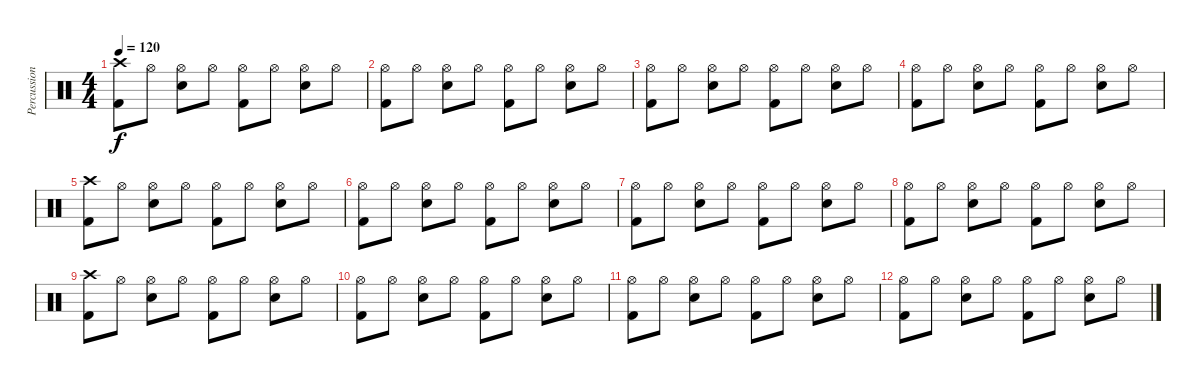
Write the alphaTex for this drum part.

\track ("Percussion" "Percussion") {instrument percussion}
\staff {score}
\articulation defaults
\ts (4 4)
\tempo 120
\clef neutral
\ks c
("Crash high (hit)" "Kick (hit) 2").8{dy f} "Hi-Hat (open)".8 ("Hi-Hat (open)" "Snare (hit) 2").8 "Hi-Hat (open)".8 ("Hi-Hat (open)" "Kick (hit) 2").8 "Hi-Hat (open)".8 ("Hi-Hat (open)" "Snare (hit) 2").8 "Hi-Hat (open)".8 |
("Hi-Hat (open)" "Kick (hit) 2").8 "Hi-Hat (open)".8 ("Hi-Hat (open)" "Snare (hit) 2").8 "Hi-Hat (open)".8 ("Hi-Hat (open)" "Kick (hit) 2").8 "Hi-Hat (open)".8 ("Hi-Hat (open)" "Snare (hit) 2").8 "Hi-Hat (open)".8 |
("Hi-Hat (open)" "Kick (hit) 2").8 "Hi-Hat (open)".8 ("Hi-Hat (open)" "Snare (hit) 2").8 "Hi-Hat (open)".8 ("Hi-Hat (open)" "Kick (hit) 2").8 "Hi-Hat (open)".8 ("Hi-Hat (open)" "Snare (hit) 2").8 "Hi-Hat (open)".8 |
("Hi-Hat (open)" "Kick (hit) 2").8 "Hi-Hat (open)".8 ("Hi-Hat (open)" "Snare (hit) 2").8 "Hi-Hat (open)".8 ("Hi-Hat (open)" "Kick (hit) 2").8 "Hi-Hat (open)".8 ("Hi-Hat (open)" "Snare (hit) 2").8 "Hi-Hat (open)".8 |
("Crash high (hit)" "Kick (hit) 2").8 "Hi-Hat (open)".8 ("Hi-Hat (open)" "Snare (hit) 2").8 "Hi-Hat (open)".8 ("Hi-Hat (open)" "Kick (hit) 2").8 "Hi-Hat (open)".8 ("Hi-Hat (open)" "Snare (hit) 2").8 "Hi-Hat (open)".8 |
("Hi-Hat (open)" "Kick (hit) 2").8 "Hi-Hat (open)".8 ("Hi-Hat (open)" "Snare (hit) 2").8 "Hi-Hat (open)".8 ("Hi-Hat (open)" "Kick (hit) 2").8 "Hi-Hat (open)".8 ("Hi-Hat (open)" "Snare (hit) 2").8 "Hi-Hat (open)".8 |
("Hi-Hat (open)" "Kick (hit) 2").8 "Hi-Hat (open)".8 ("Hi-Hat (open)" "Snare (hit) 2").8 "Hi-Hat (open)".8 ("Hi-Hat (open)" "Kick (hit) 2").8 "Hi-Hat (open)".8 ("Hi-Hat (open)" "Snare (hit) 2").8 "Hi-Hat (open)".8 |
("Hi-Hat (open)" "Kick (hit) 2").8 "Hi-Hat (open)".8 ("Hi-Hat (open)" "Snare (hit) 2").8 "Hi-Hat (open)".8 ("Hi-Hat (open)" "Kick (hit) 2").8 "Hi-Hat (open)".8 ("Hi-Hat (open)" "Snare (hit) 2").8 "Hi-Hat (open)".8 |
("Crash high (hit)" "Kick (hit) 2").8 "Hi-Hat (open)".8 ("Hi-Hat (open)" "Snare (hit) 2").8 "Hi-Hat (open)".8 ("Hi-Hat (open)" "Kick (hit) 2").8 "Hi-Hat (open)".8 ("Hi-Hat (open)" "Snare (hit) 2").8 "Hi-Hat (open)".8 |
("Hi-Hat (open)" "Kick (hit) 2").8 "Hi-Hat (open)".8 ("Hi-Hat (open)" "Snare (hit) 2").8 "Hi-Hat (open)".8 ("Hi-Hat (open)" "Kick (hit) 2").8 "Hi-Hat (open)".8 ("Hi-Hat (open)" "Snare (hit) 2").8 "Hi-Hat (open)".8 |
("Hi-Hat (open)" "Kick (hit) 2").8 "Hi-Hat (open)".8 ("Hi-Hat (open)" "Snare (hit) 2").8 "Hi-Hat (open)".8 ("Hi-Hat (open)" "Kick (hit) 2").8 "Hi-Hat (open)".8 ("Hi-Hat (open)" "Snare (hit) 2").8 "Hi-Hat (open)".8 |
("Hi-Hat (open)" "Kick (hit) 2").8 "Hi-Hat (open)".8 ("Hi-Hat (open)" "Snare (hit) 2").8 "Hi-Hat (open)".8 ("Hi-Hat (open)" "Kick (hit) 2").8 "Hi-Hat (open)".8 ("Hi-Hat (open)" "Snare (hit) 2").8 "Hi-Hat (open)".8
